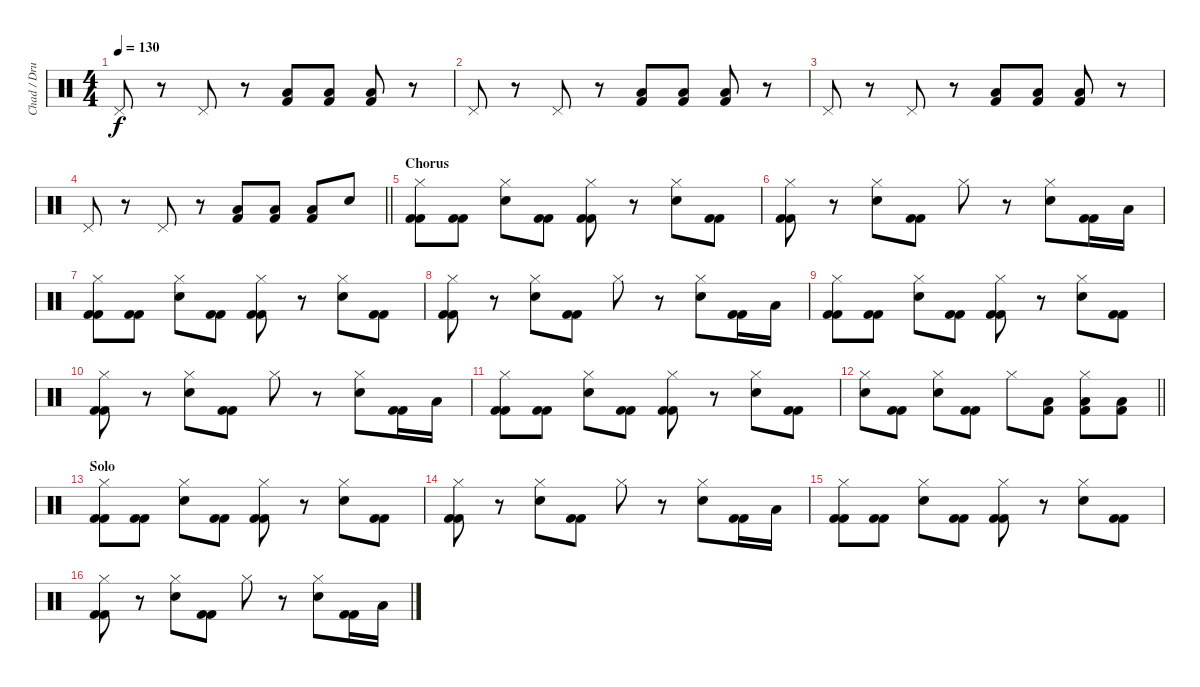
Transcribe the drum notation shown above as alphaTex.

\track ("Chad / Drums" "Chad / Dru") {instrument percussion}
\staff {score}
\articulation defaults
\ts (4 4)
\tempo 130
\clef neutral
\ks c "Pedal Hi-Hat (hit)".8{dy f}
r.8 "Pedal Hi-Hat (hit)".8 r.8 ("Low Floor Tom (hit)" "Kick (hit) 2").8 ("Low Floor Tom (hit)" "Kick (hit) 2").8 ("Low Floor Tom (hit)" "Kick (hit) 2").8 r.8 |
"Pedal Hi-Hat (hit)".8 r.8 "Pedal Hi-Hat (hit)".8 r.8 ("Low Floor Tom (hit)" "Kick (hit) 2").8 ("Low Floor Tom (hit)" "Kick (hit) 2").8 ("Low Floor Tom (hit)" "Kick (hit) 2").8 r.8 |
"Pedal Hi-Hat (hit)".8 r.8 "Pedal Hi-Hat (hit)".8 r.8 ("Low Floor Tom (hit)" "Kick (hit) 2").8 ("Low Floor Tom (hit)" "Kick (hit) 2").8 ("Low Floor Tom (hit)" "Kick (hit) 2").8 r.8 |
\barLineRight lightlight "Pedal Hi-Hat (hit)".8
r.8 "Pedal Hi-Hat (hit)".8 r.8 ("Low Floor Tom (hit)" "Kick (hit) 2").8 ("Low Floor Tom (hit)" "Kick (hit) 2").8 ("Low Floor Tom (hit)" "Kick (hit) 2").8 "Snare (hit) 2".8 |
\section ("" "Chorus")
("Hi-Hat (closed)" "Kick (hit) 2" "Kick (hit) 2").8 ("Kick (hit) 2" "Kick (hit) 2").8 ("Hi-Hat (closed)" "Snare (hit) 2").8 ("Kick (hit) 2" "Kick (hit) 2").8 ("Hi-Hat (closed)" "Kick (hit) 2" "Kick (hit) 2").8 r.8 ("Hi-Hat (closed)" "Snare (hit) 2").8 ("Kick (hit) 2" "Kick (hit) 2").8 |
("Hi-Hat (closed)" "Kick (hit) 2" "Kick (hit) 2").8 r.8 ("Hi-Hat (closed)" "Snare (hit) 2").8 ("Kick (hit) 2" "Kick (hit) 2").8 "Hi-Hat (closed)".8 r.8 ("Hi-Hat (closed)" "Snare (hit) 2").8 ("Kick (hit) 2" "Kick (hit) 2").16 "Low Floor Tom (hit)".16 |
("Hi-Hat (closed)" "Kick (hit) 2" "Kick (hit) 2").8 ("Kick (hit) 2" "Kick (hit) 2").8 ("Hi-Hat (closed)" "Snare (hit) 2").8 ("Kick (hit) 2" "Kick (hit) 2").8 ("Hi-Hat (closed)" "Kick (hit) 2" "Kick (hit) 2").8 r.8 ("Hi-Hat (closed)" "Snare (hit) 2").8 ("Kick (hit) 2" "Kick (hit) 2").8 |
("Hi-Hat (closed)" "Kick (hit) 2" "Kick (hit) 2").8 r.8 ("Hi-Hat (closed)" "Snare (hit) 2").8 ("Kick (hit) 2" "Kick (hit) 2").8 "Hi-Hat (closed)".8 r.8 ("Hi-Hat (closed)" "Snare (hit) 2").8 ("Kick (hit) 2" "Kick (hit) 2").16 "Low Floor Tom (hit)".16 |
("Hi-Hat (closed)" "Kick (hit) 2" "Kick (hit) 2").8 ("Kick (hit) 2" "Kick (hit) 2").8 ("Hi-Hat (closed)" "Snare (hit) 2").8 ("Kick (hit) 2" "Kick (hit) 2").8 ("Hi-Hat (closed)" "Kick (hit) 2" "Kick (hit) 2").8 r.8 ("Hi-Hat (closed)" "Snare (hit) 2").8 ("Kick (hit) 2" "Kick (hit) 2").8 |
("Hi-Hat (closed)" "Kick (hit) 2" "Kick (hit) 2").8 r.8 ("Hi-Hat (closed)" "Snare (hit) 2").8 ("Kick (hit) 2" "Kick (hit) 2").8 "Hi-Hat (closed)".8 r.8 ("Hi-Hat (closed)" "Snare (hit) 2").8 ("Kick (hit) 2" "Kick (hit) 2").16 "Low Floor Tom (hit)".16 |
("Hi-Hat (closed)" "Kick (hit) 2" "Kick (hit) 2").8 ("Kick (hit) 2" "Kick (hit) 2").8 ("Hi-Hat (closed)" "Snare (hit) 2").8 ("Kick (hit) 2" "Kick (hit) 2").8 ("Hi-Hat (closed)" "Kick (hit) 2" "Kick (hit) 2").8 r.8 ("Hi-Hat (closed)" "Snare (hit) 2").8 ("Kick (hit) 2" "Kick (hit) 2").8 |
\barLineRight lightlight
("Hi-Hat (closed)" "Snare (hit) 2").8 ("Kick (hit) 2" "Kick (hit) 2").8 ("Hi-Hat (closed)" "Snare (hit) 2").8 ("Kick (hit) 2" "Kick (hit) 2").8 "Hi-Hat (closed)".8 ("Low Floor Tom (hit)" "Kick (hit) 2").8 ("Hi-Hat (closed)" "Low Floor Tom (hit)" "Kick (hit) 2").8 ("Low Floor Tom (hit)" "Kick (hit) 2").8 |
\section ("" "Solo")
("Hi-Hat (closed)" "Kick (hit) 2" "Kick (hit) 2").8 ("Kick (hit) 2" "Kick (hit) 2").8 ("Hi-Hat (closed)" "Snare (hit) 2").8 ("Kick (hit) 2" "Kick (hit) 2").8 ("Hi-Hat (closed)" "Kick (hit) 2" "Kick (hit) 2").8 r.8 ("Hi-Hat (closed)" "Snare (hit) 2").8 ("Kick (hit) 2" "Kick (hit) 2").8 |
("Hi-Hat (closed)" "Kick (hit) 2" "Kick (hit) 2").8 r.8 ("Hi-Hat (closed)" "Snare (hit) 2").8 ("Kick (hit) 2" "Kick (hit) 2").8 "Hi-Hat (closed)".8 r.8 ("Hi-Hat (closed)" "Snare (hit) 2").8 ("Kick (hit) 2" "Kick (hit) 2").16 "Low Floor Tom (hit)".16 |
("Hi-Hat (closed)" "Kick (hit) 2" "Kick (hit) 2").8 ("Kick (hit) 2" "Kick (hit) 2").8 ("Hi-Hat (closed)" "Snare (hit) 2").8 ("Kick (hit) 2" "Kick (hit) 2").8 ("Hi-Hat (closed)" "Kick (hit) 2" "Kick (hit) 2").8 r.8 ("Hi-Hat (closed)" "Snare (hit) 2").8 ("Kick (hit) 2" "Kick (hit) 2").8 |
("Hi-Hat (closed)" "Kick (hit) 2" "Kick (hit) 2").8 r.8 ("Hi-Hat (closed)" "Snare (hit) 2").8 ("Kick (hit) 2" "Kick (hit) 2").8 "Hi-Hat (closed)".8 r.8 ("Hi-Hat (closed)" "Snare (hit) 2").8 ("Kick (hit) 2" "Kick (hit) 2").16 "Low Floor Tom (hit)".16
